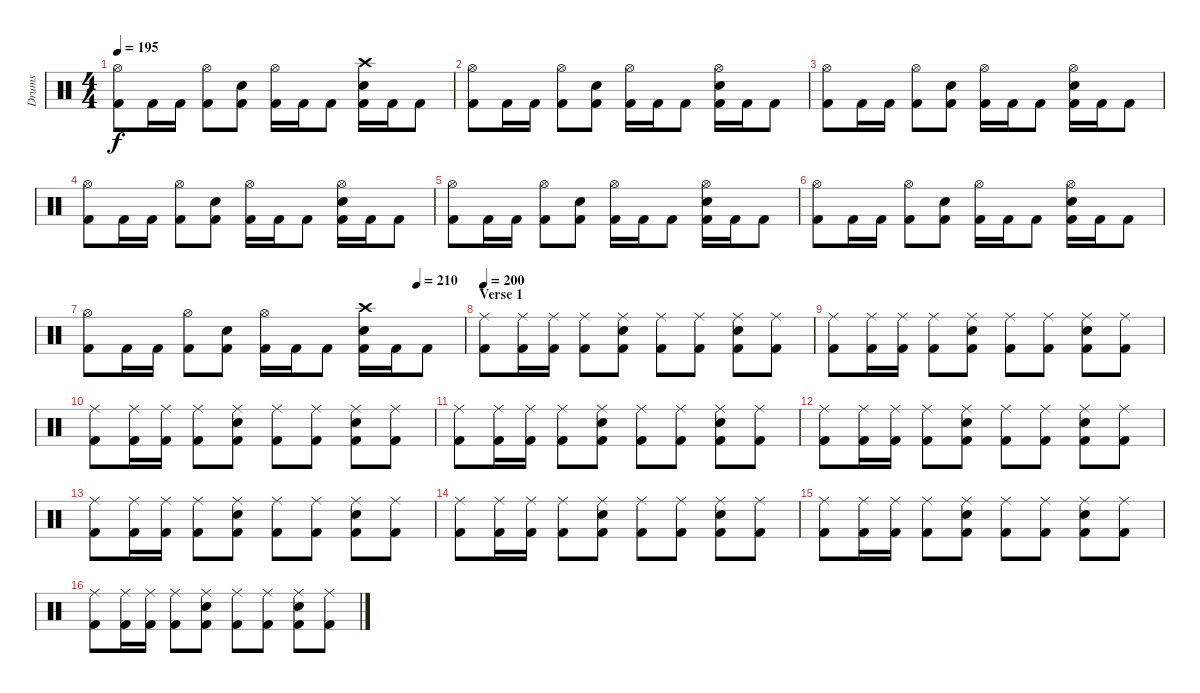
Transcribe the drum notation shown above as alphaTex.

\track ("Drums" "Drums") {instrument percussion}
\staff {score}
\articulation defaults
\ts (4 4)
\tempo 195
\clef neutral
\ks c
("Hi-Hat (open)" "Kick (hit) 2").8{dy f} "Kick (hit) 2".16 "Kick (hit) 2".16 ("Hi-Hat (open)" "Kick (hit) 2").8 ("Snare (hit) 2" "Kick (hit) 2").8 ("Hi-Hat (open)" "Kick (hit) 2").16 "Kick (hit) 2".16 "Kick (hit) 2".8 ("Crash high (hit)" "Snare (hit) 2" "Kick (hit) 2").16 "Kick (hit) 2".16 "Kick (hit) 2".8 |
("Hi-Hat (open)" "Kick (hit) 2").8 "Kick (hit) 2".16 "Kick (hit) 2".16 ("Hi-Hat (open)" "Kick (hit) 2").8 ("Snare (hit) 2" "Kick (hit) 2").8 ("Hi-Hat (open)" "Kick (hit) 2").16 "Kick (hit) 2".16 "Kick (hit) 2".8 ("Hi-Hat (open)" "Snare (hit) 2" "Kick (hit) 2").16 "Kick (hit) 2".16 "Kick (hit) 2".8 |
("Hi-Hat (open)" "Kick (hit) 2").8 "Kick (hit) 2".16 "Kick (hit) 2".16 ("Hi-Hat (open)" "Kick (hit) 2").8 ("Snare (hit) 2" "Kick (hit) 2").8 ("Hi-Hat (open)" "Kick (hit) 2").16 "Kick (hit) 2".16 "Kick (hit) 2".8 ("Hi-Hat (open)" "Snare (hit) 2" "Kick (hit) 2").16 "Kick (hit) 2".16 "Kick (hit) 2".8 |
("Hi-Hat (open)" "Kick (hit) 2").8 "Kick (hit) 2".16 "Kick (hit) 2".16 ("Hi-Hat (open)" "Kick (hit) 2").8 ("Snare (hit) 2" "Kick (hit) 2").8 ("Hi-Hat (open)" "Kick (hit) 2").16 "Kick (hit) 2".16 "Kick (hit) 2".8 ("Hi-Hat (open)" "Snare (hit) 2" "Kick (hit) 2").16 "Kick (hit) 2".16 "Kick (hit) 2".8 |
("Hi-Hat (open)" "Kick (hit) 2").8 "Kick (hit) 2".16 "Kick (hit) 2".16 ("Hi-Hat (open)" "Kick (hit) 2").8 ("Snare (hit) 2" "Kick (hit) 2").8 ("Hi-Hat (open)" "Kick (hit) 2").16 "Kick (hit) 2".16 "Kick (hit) 2".8 ("Hi-Hat (open)" "Snare (hit) 2" "Kick (hit) 2").16 "Kick (hit) 2".16 "Kick (hit) 2".8 |
("Hi-Hat (open)" "Kick (hit) 2").8 "Kick (hit) 2".16 "Kick (hit) 2".16 ("Hi-Hat (open)" "Kick (hit) 2").8 ("Snare (hit) 2" "Kick (hit) 2").8 ("Hi-Hat (open)" "Kick (hit) 2").16 "Kick (hit) 2".16 "Kick (hit) 2".8 ("Hi-Hat (open)" "Snare (hit) 2" "Kick (hit) 2").16 "Kick (hit) 2".16 "Kick (hit) 2".8 |
\tempo (210 0.875)
("Hi-Hat (open)" "Kick (hit) 2").8 "Kick (hit) 2".16 "Kick (hit) 2".16 ("Hi-Hat (open)" "Kick (hit) 2").8 ("Snare (hit) 2" "Kick (hit) 2").8 ("Hi-Hat (open)" "Kick (hit) 2").16 "Kick (hit) 2".16 "Kick (hit) 2".8 ("Crash high (hit)" "Snare (hit) 2" "Kick (hit) 2").16 "Kick (hit) 2".16 "Kick (hit) 2".8 |
\section ("" "Verse 1")
\tempo 200
("Ride (middle)" "Kick (hit) 2").8 ("Ride (middle)" "Kick (hit) 2").16 ("Ride (middle)" "Kick (hit) 2").16 ("Ride (middle)" "Kick (hit) 2").8 ("Ride (middle)" "Snare (hit) 2" "Kick (hit) 2").8 ("Ride (middle)" "Kick (hit) 2").8 ("Ride (middle)" "Kick (hit) 2").8 ("Ride (middle)" "Snare (hit) 2" "Kick (hit) 2").8 ("Ride (middle)" "Kick (hit) 2").8 |
("Ride (middle)" "Kick (hit) 2").8 ("Ride (middle)" "Kick (hit) 2").16 ("Ride (middle)" "Kick (hit) 2").16 ("Ride (middle)" "Kick (hit) 2").8 ("Ride (middle)" "Snare (hit) 2" "Kick (hit) 2").8 ("Ride (middle)" "Kick (hit) 2").8 ("Ride (middle)" "Kick (hit) 2").8 ("Ride (middle)" "Snare (hit) 2" "Kick (hit) 2").8 ("Ride (middle)" "Kick (hit) 2").8 |
("Ride (middle)" "Kick (hit) 2").8 ("Ride (middle)" "Kick (hit) 2").16 ("Ride (middle)" "Kick (hit) 2").16 ("Ride (middle)" "Kick (hit) 2").8 ("Ride (middle)" "Snare (hit) 2" "Kick (hit) 2").8 ("Ride (middle)" "Kick (hit) 2").8 ("Ride (middle)" "Kick (hit) 2").8 ("Ride (middle)" "Snare (hit) 2" "Kick (hit) 2").8 ("Ride (middle)" "Kick (hit) 2").8 |
("Ride (middle)" "Kick (hit) 2").8 ("Ride (middle)" "Kick (hit) 2").16 ("Ride (middle)" "Kick (hit) 2").16 ("Ride (middle)" "Kick (hit) 2").8 ("Ride (middle)" "Snare (hit) 2" "Kick (hit) 2").8 ("Ride (middle)" "Kick (hit) 2").8 ("Ride (middle)" "Kick (hit) 2").8 ("Ride (middle)" "Snare (hit) 2" "Kick (hit) 2").8 ("Ride (middle)" "Kick (hit) 2").8 |
("Ride (middle)" "Kick (hit) 2").8 ("Ride (middle)" "Kick (hit) 2").16 ("Ride (middle)" "Kick (hit) 2").16 ("Ride (middle)" "Kick (hit) 2").8 ("Ride (middle)" "Snare (hit) 2" "Kick (hit) 2").8 ("Ride (middle)" "Kick (hit) 2").8 ("Ride (middle)" "Kick (hit) 2").8 ("Ride (middle)" "Snare (hit) 2" "Kick (hit) 2").8 ("Ride (middle)" "Kick (hit) 2").8 |
("Ride (middle)" "Kick (hit) 2").8 ("Ride (middle)" "Kick (hit) 2").16 ("Ride (middle)" "Kick (hit) 2").16 ("Ride (middle)" "Kick (hit) 2").8 ("Ride (middle)" "Snare (hit) 2" "Kick (hit) 2").8 ("Ride (middle)" "Kick (hit) 2").8 ("Ride (middle)" "Kick (hit) 2").8 ("Ride (middle)" "Snare (hit) 2" "Kick (hit) 2").8 ("Ride (middle)" "Kick (hit) 2").8 |
("Ride (middle)" "Kick (hit) 2").8 ("Ride (middle)" "Kick (hit) 2").16 ("Ride (middle)" "Kick (hit) 2").16 ("Ride (middle)" "Kick (hit) 2").8 ("Ride (middle)" "Snare (hit) 2" "Kick (hit) 2").8 ("Ride (middle)" "Kick (hit) 2").8 ("Ride (middle)" "Kick (hit) 2").8 ("Ride (middle)" "Snare (hit) 2" "Kick (hit) 2").8 ("Ride (middle)" "Kick (hit) 2").8 |
("Ride (middle)" "Kick (hit) 2").8 ("Ride (middle)" "Kick (hit) 2").16 ("Ride (middle)" "Kick (hit) 2").16 ("Ride (middle)" "Kick (hit) 2").8 ("Ride (middle)" "Snare (hit) 2" "Kick (hit) 2").8 ("Ride (middle)" "Kick (hit) 2").8 ("Ride (middle)" "Kick (hit) 2").8 ("Ride (middle)" "Snare (hit) 2" "Kick (hit) 2").8 ("Ride (middle)" "Kick (hit) 2").8 |
("Ride (middle)" "Kick (hit) 2").8 ("Ride (middle)" "Kick (hit) 2").16 ("Ride (middle)" "Kick (hit) 2").16 ("Ride (middle)" "Kick (hit) 2").8 ("Ride (middle)" "Snare (hit) 2" "Kick (hit) 2").8 ("Ride (middle)" "Kick (hit) 2").8 ("Ride (middle)" "Kick (hit) 2").8 ("Ride (middle)" "Snare (hit) 2" "Kick (hit) 2").8 ("Ride (middle)" "Kick (hit) 2").8
